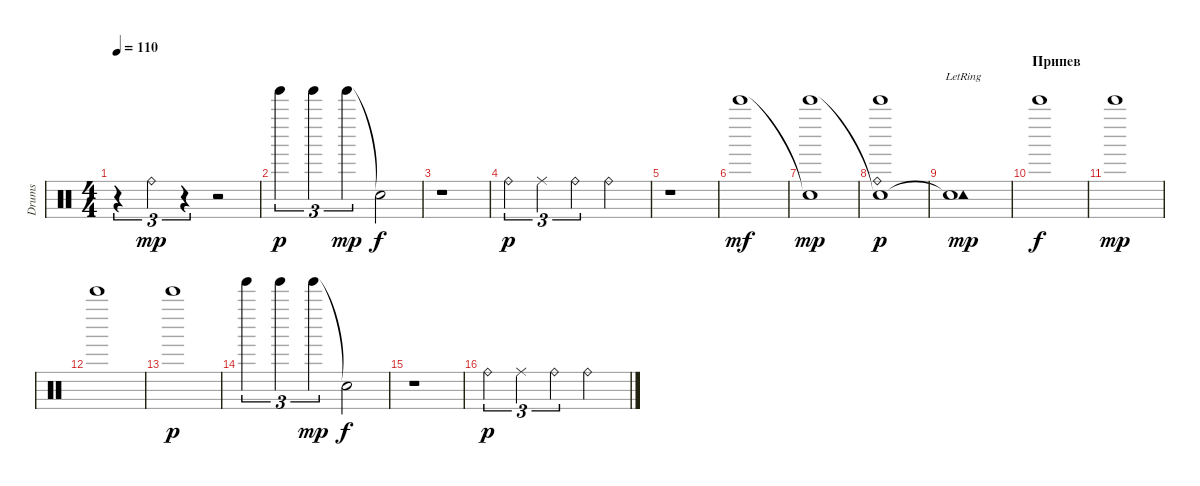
\track ("Drums" "Drums") {instrument percussion}
\staff {score}
\articulation defaults
\ts (4 4)
\tempo 110
\clef neutral
\ks c
r.4{tu (3 2) dy p} "Ride (bell)".4{tu (3 2) dy mp} r.4{tu (3 2)} r.2 |
"Tinkle Bell (hit)".4{tu (3 2) dy p} "Tinkle Bell (hit)".4{tu (3 2)} "Tinkle Bell (hit)".4{tu (3 2) dy mp} "Snare (hit)"{t}.2{dy f} |
r.1 |
"Ride (bell)".4{tu (3 2) dy p} "Ride (middle)".4{tu (3 2)} "Ride (bell)".4{tu (3 2)} "Ride (bell)".2 |
r.1 |
"Bell Tree (hit)".1{dy mf} |
("Snare (hit)"{t} "Bell Tree (hit)").1{dy mp} |
("Ride (bell)" "Snare (hit)"{t} "Bell Tree (hit)").1{dy p} |
("Tambourine (hit)"{lr} "Snare (hit)"{t}).1{dy mp} |
\section ("" "Припев")
"Bell Tree (hit)".1{dy f} |
"Bell Tree (hit)".1{dy mp} |
"Bell Tree (hit)".1 |
"Bell Tree (hit)".1{dy p} |
"Tinkle Bell (hit)".4{tu (3 2)} "Tinkle Bell (hit)".4{tu (3 2)} "Tinkle Bell (hit)".4{tu (3 2) dy mp} "Snare (hit)"{t}.2{dy f} |
r.1 |
"Ride (bell)".4{tu (3 2) dy p} "Ride (middle)".4{tu (3 2)} "Ride (bell)".4{tu (3 2)} "Ride (bell)".2
